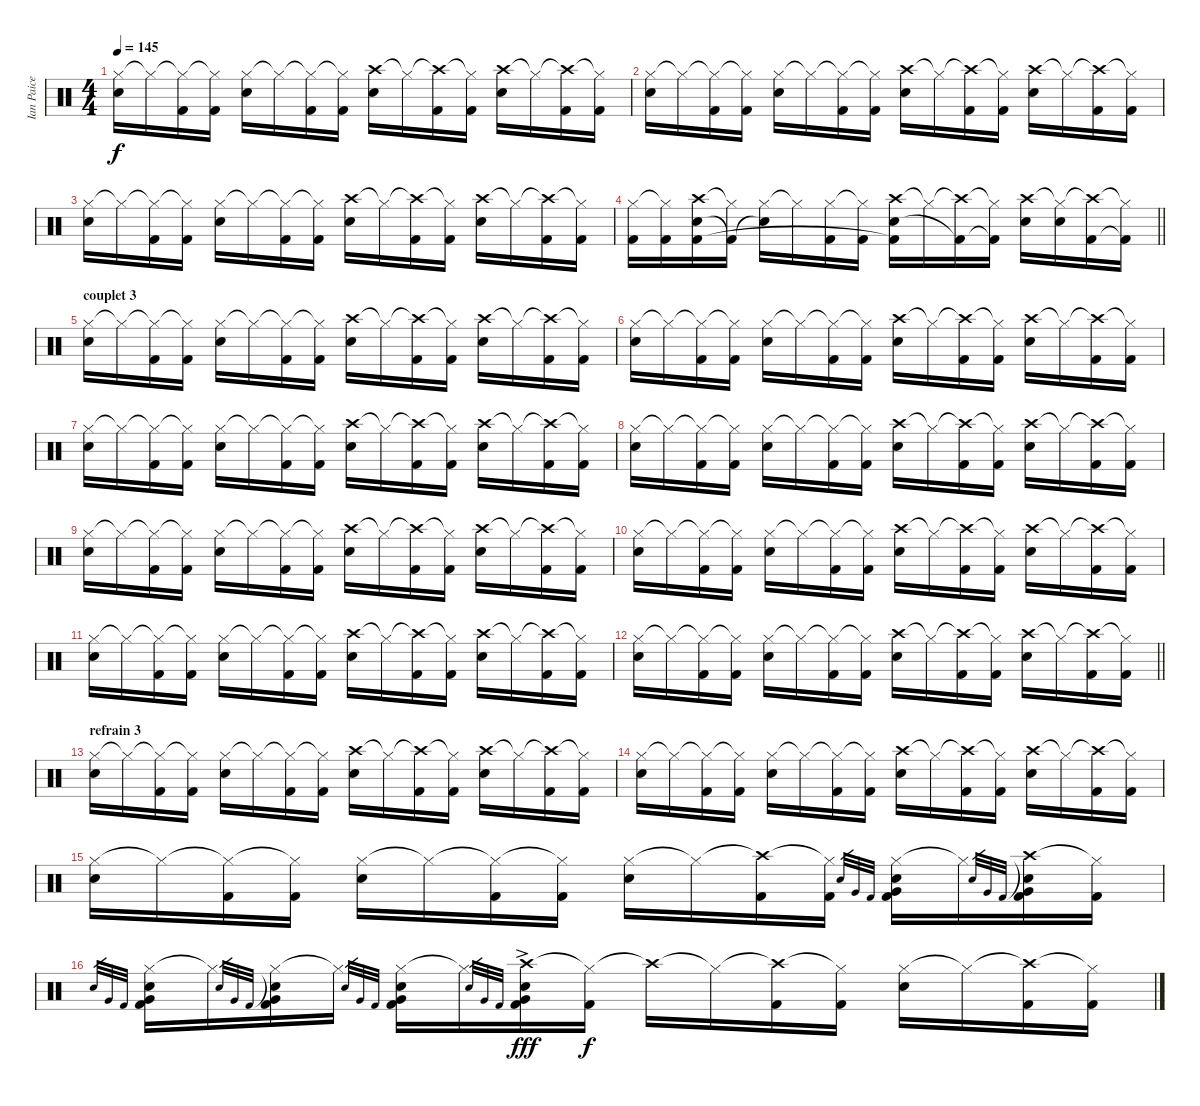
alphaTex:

\track ("Ian Paice" "Ian Paice") {instrument percussion}
\staff {score}
\articulation defaults
\ts (4 4)
\tempo 145
\clef neutral
\ks c
("Hi-Hat (closed)" "Snare (hit) 2").16{dy f} "Hi-Hat (closed)"{t}.16 ("Hi-Hat (closed)"{t} "Kick (hit) 2").16 ("Hi-Hat (closed)"{t} "Kick (hit) 2").16 ("Hi-Hat (closed)" "Snare (hit) 2").16 "Hi-Hat (closed)"{t}.16 ("Hi-Hat (closed)"{t} "Kick (hit) 2").16 ("Hi-Hat (closed)"{t} "Kick (hit) 2").16 ("Crash high (hit)" "Snare (hit) 2").16 "Hi-Hat (closed)"{t}.16 ("Crash high (hit)"{t} "Kick (hit) 2").16 ("Hi-Hat (closed)"{t} "Kick (hit) 2").16 ("Crash high (hit)" "Snare (hit) 2").16 "Hi-Hat (closed)"{t}.16 ("Crash high (hit)"{t} "Kick (hit) 2").16 ("Hi-Hat (closed)"{t} "Kick (hit) 2").16 |
("Hi-Hat (closed)" "Snare (hit) 2").16 "Hi-Hat (closed)"{t}.16 ("Hi-Hat (closed)"{t} "Kick (hit) 2").16 ("Hi-Hat (closed)"{t} "Kick (hit) 2").16 ("Hi-Hat (closed)" "Snare (hit) 2").16 "Hi-Hat (closed)"{t}.16 ("Hi-Hat (closed)"{t} "Kick (hit) 2").16 ("Hi-Hat (closed)"{t} "Kick (hit) 2").16 ("Crash high (hit)" "Snare (hit) 2").16 "Hi-Hat (closed)"{t}.16 ("Crash high (hit)"{t} "Kick (hit) 2").16 ("Hi-Hat (closed)"{t} "Kick (hit) 2").16 ("Crash high (hit)" "Snare (hit) 2").16 "Hi-Hat (closed)"{t}.16 ("Crash high (hit)"{t} "Kick (hit) 2").16 ("Hi-Hat (closed)"{t} "Kick (hit) 2").16 |
("Hi-Hat (closed)" "Snare (hit) 2").16 "Hi-Hat (closed)"{t}.16 ("Hi-Hat (closed)"{t} "Kick (hit) 2").16 ("Hi-Hat (closed)"{t} "Kick (hit) 2").16 ("Hi-Hat (closed)" "Snare (hit) 2").16 "Hi-Hat (closed)"{t}.16 ("Hi-Hat (closed)"{t} "Kick (hit) 2").16 ("Hi-Hat (closed)"{t} "Kick (hit) 2").16 ("Crash high (hit)" "Snare (hit) 2").16 "Hi-Hat (closed)"{t}.16 ("Crash high (hit)"{t} "Kick (hit) 2").16 ("Hi-Hat (closed)"{t} "Kick (hit) 2").16 ("Crash high (hit)" "Snare (hit) 2").16 "Hi-Hat (closed)"{t}.16 ("Crash high (hit)"{t} "Kick (hit) 2").16 ("Hi-Hat (closed)"{t} "Kick (hit) 2").16 |
\barLineRight lightlight
("Hi-Hat (closed)" "Kick (hit) 2").16 ("Hi-Hat (closed)"{t} "Kick (hit) 2").16 ("Crash high (hit)" "Snare (hit) 2" "Kick (hit) 2").16 ("Hi-Hat (closed)"{t} "Kick (hit) 2"{t}).16 ("Hi-Hat (closed)" "Snare (hit) 2"{t}).16 "Hi-Hat (closed)"{t}.16 ("Hi-Hat (closed)" "Kick (hit) 2").16 ("Hi-Hat (closed)"{t} "Kick (hit) 2").16 ("Crash high (hit)" "Snare (hit) 2" "Kick (hit) 2"{t}).16 "Hi-Hat (closed)"{t}.16 ("Crash high (hit)"{t} "Kick (hit) 2"{t}).16 ("Hi-Hat (closed)"{t} "Kick (hit) 2"{t}).16 ("Crash high (hit)" "Snare (hit) 2").16 ("Hi-Hat (closed)"{t} "Snare (hit) 2").16 ("Crash high (hit)"{t} "Kick (hit) 2").16 ("Hi-Hat (closed)"{t} "Kick (hit) 2"{t}).16 |
\section ("" "couplet 3")
("Hi-Hat (closed)" "Snare (hit) 2").16 "Hi-Hat (closed)"{t}.16 ("Hi-Hat (closed)"{t} "Kick (hit) 2").16 ("Hi-Hat (closed)"{t} "Kick (hit) 2").16 ("Hi-Hat (closed)" "Snare (hit) 2").16 "Hi-Hat (closed)"{t}.16 ("Hi-Hat (closed)"{t} "Kick (hit) 2").16 ("Hi-Hat (closed)"{t} "Kick (hit) 2").16 ("Crash high (hit)" "Snare (hit) 2").16 "Hi-Hat (closed)"{t}.16 ("Crash high (hit)"{t} "Kick (hit) 2").16 ("Hi-Hat (closed)"{t} "Kick (hit) 2").16 ("Crash high (hit)" "Snare (hit) 2").16 "Hi-Hat (closed)"{t}.16 ("Crash high (hit)"{t} "Kick (hit) 2").16 ("Hi-Hat (closed)"{t} "Kick (hit) 2").16 |
("Hi-Hat (closed)" "Snare (hit) 2").16 "Hi-Hat (closed)"{t}.16 ("Hi-Hat (closed)"{t} "Kick (hit) 2").16 ("Hi-Hat (closed)"{t} "Kick (hit) 2").16 ("Hi-Hat (closed)" "Snare (hit) 2").16 "Hi-Hat (closed)"{t}.16 ("Hi-Hat (closed)"{t} "Kick (hit) 2").16 ("Hi-Hat (closed)"{t} "Kick (hit) 2").16 ("Crash high (hit)" "Snare (hit) 2").16 "Hi-Hat (closed)"{t}.16 ("Crash high (hit)"{t} "Kick (hit) 2").16 ("Hi-Hat (closed)"{t} "Kick (hit) 2").16 ("Crash high (hit)" "Snare (hit) 2").16 "Hi-Hat (closed)"{t}.16 ("Crash high (hit)"{t} "Kick (hit) 2").16 ("Hi-Hat (closed)"{t} "Kick (hit) 2").16 |
("Hi-Hat (closed)" "Snare (hit) 2").16 "Hi-Hat (closed)"{t}.16 ("Hi-Hat (closed)"{t} "Kick (hit) 2").16 ("Hi-Hat (closed)"{t} "Kick (hit) 2").16 ("Hi-Hat (closed)" "Snare (hit) 2").16 "Hi-Hat (closed)"{t}.16 ("Hi-Hat (closed)"{t} "Kick (hit) 2").16 ("Hi-Hat (closed)"{t} "Kick (hit) 2").16 ("Crash high (hit)" "Snare (hit) 2").16 "Hi-Hat (closed)"{t}.16 ("Crash high (hit)"{t} "Kick (hit) 2").16 ("Hi-Hat (closed)"{t} "Kick (hit) 2").16 ("Crash high (hit)" "Snare (hit) 2").16 "Hi-Hat (closed)"{t}.16 ("Crash high (hit)"{t} "Kick (hit) 2").16 ("Hi-Hat (closed)"{t} "Kick (hit) 2").16 |
("Hi-Hat (closed)" "Snare (hit) 2").16 "Hi-Hat (closed)"{t}.16 ("Hi-Hat (closed)"{t} "Kick (hit) 2").16 ("Hi-Hat (closed)"{t} "Kick (hit) 2").16 ("Hi-Hat (closed)" "Snare (hit) 2").16 "Hi-Hat (closed)"{t}.16 ("Hi-Hat (closed)"{t} "Kick (hit) 2").16 ("Hi-Hat (closed)"{t} "Kick (hit) 2").16 ("Crash high (hit)" "Snare (hit) 2").16 "Hi-Hat (closed)"{t}.16 ("Crash high (hit)"{t} "Kick (hit) 2").16 ("Hi-Hat (closed)"{t} "Kick (hit) 2").16 ("Crash high (hit)" "Snare (hit) 2").16 "Hi-Hat (closed)"{t}.16 ("Crash high (hit)"{t} "Kick (hit) 2").16 ("Hi-Hat (closed)"{t} "Kick (hit) 2").16 |
("Hi-Hat (closed)" "Snare (hit) 2").16 "Hi-Hat (closed)"{t}.16 ("Hi-Hat (closed)"{t} "Kick (hit) 2").16 ("Hi-Hat (closed)"{t} "Kick (hit) 2").16 ("Hi-Hat (closed)" "Snare (hit) 2").16 "Hi-Hat (closed)"{t}.16 ("Hi-Hat (closed)"{t} "Kick (hit) 2").16 ("Hi-Hat (closed)"{t} "Kick (hit) 2").16 ("Crash high (hit)" "Snare (hit) 2").16 "Hi-Hat (closed)"{t}.16 ("Crash high (hit)"{t} "Kick (hit) 2").16 ("Hi-Hat (closed)"{t} "Kick (hit) 2").16 ("Crash high (hit)" "Snare (hit) 2").16 "Hi-Hat (closed)"{t}.16 ("Crash high (hit)"{t} "Kick (hit) 2").16 ("Hi-Hat (closed)"{t} "Kick (hit) 2").16 |
("Hi-Hat (closed)" "Snare (hit) 2").16 "Hi-Hat (closed)"{t}.16 ("Hi-Hat (closed)"{t} "Kick (hit) 2").16 ("Hi-Hat (closed)"{t} "Kick (hit) 2").16 ("Hi-Hat (closed)" "Snare (hit) 2").16 "Hi-Hat (closed)"{t}.16 ("Hi-Hat (closed)"{t} "Kick (hit) 2").16 ("Hi-Hat (closed)"{t} "Kick (hit) 2").16 ("Crash high (hit)" "Snare (hit) 2").16 "Hi-Hat (closed)"{t}.16 ("Crash high (hit)"{t} "Kick (hit) 2").16 ("Hi-Hat (closed)"{t} "Kick (hit) 2").16 ("Crash high (hit)" "Snare (hit) 2").16 "Hi-Hat (closed)"{t}.16 ("Crash high (hit)"{t} "Kick (hit) 2").16 ("Hi-Hat (closed)"{t} "Kick (hit) 2").16 |
("Hi-Hat (closed)" "Snare (hit) 2").16 "Hi-Hat (closed)"{t}.16 ("Hi-Hat (closed)"{t} "Kick (hit) 2").16 ("Hi-Hat (closed)"{t} "Kick (hit) 2").16 ("Hi-Hat (closed)" "Snare (hit) 2").16 "Hi-Hat (closed)"{t}.16 ("Hi-Hat (closed)"{t} "Kick (hit) 2").16 ("Hi-Hat (closed)"{t} "Kick (hit) 2").16 ("Crash high (hit)" "Snare (hit) 2").16 "Hi-Hat (closed)"{t}.16 ("Crash high (hit)"{t} "Kick (hit) 2").16 ("Hi-Hat (closed)"{t} "Kick (hit) 2").16 ("Crash high (hit)" "Snare (hit) 2").16 "Hi-Hat (closed)"{t}.16 ("Crash high (hit)"{t} "Kick (hit) 2").16 ("Hi-Hat (closed)"{t} "Kick (hit) 2").16 |
\barLineRight lightlight
("Hi-Hat (closed)" "Snare (hit) 2").16 "Hi-Hat (closed)"{t}.16 ("Hi-Hat (closed)"{t} "Kick (hit) 2").16 ("Hi-Hat (closed)"{t} "Kick (hit) 2").16 ("Hi-Hat (closed)" "Snare (hit) 2").16 "Hi-Hat (closed)"{t}.16 ("Hi-Hat (closed)"{t} "Kick (hit) 2").16 ("Hi-Hat (closed)"{t} "Kick (hit) 2").16 ("Crash high (hit)" "Snare (hit) 2").16 "Hi-Hat (closed)"{t}.16 ("Crash high (hit)"{t} "Kick (hit) 2").16 ("Hi-Hat (closed)"{t} "Kick (hit) 2").16 ("Crash high (hit)" "Snare (hit) 2").16 "Hi-Hat (closed)"{t}.16 ("Crash high (hit)"{t} "Kick (hit) 2").16 ("Hi-Hat (closed)"{t} "Kick (hit) 2").16 |
\section ("" "refrain 3")
("Hi-Hat (closed)" "Snare (hit) 2").16 "Hi-Hat (closed)"{t}.16 ("Hi-Hat (closed)"{t} "Kick (hit) 2").16 ("Hi-Hat (closed)"{t} "Kick (hit) 2").16 ("Hi-Hat (closed)" "Snare (hit) 2").16 "Hi-Hat (closed)"{t}.16 ("Hi-Hat (closed)"{t} "Kick (hit) 2").16 ("Hi-Hat (closed)"{t} "Kick (hit) 2").16 ("Crash high (hit)" "Snare (hit) 2").16 "Hi-Hat (closed)"{t}.16 ("Crash high (hit)"{t} "Kick (hit) 2").16 ("Hi-Hat (closed)"{t} "Kick (hit) 2").16 ("Crash high (hit)" "Snare (hit) 2").16 "Hi-Hat (closed)"{t}.16 ("Crash high (hit)"{t} "Kick (hit) 2").16 ("Hi-Hat (closed)"{t} "Kick (hit) 2").16 |
("Hi-Hat (closed)" "Snare (hit) 2").16 "Hi-Hat (closed)"{t}.16 ("Hi-Hat (closed)"{t} "Kick (hit) 2").16 ("Hi-Hat (closed)"{t} "Kick (hit) 2").16 ("Hi-Hat (closed)" "Snare (hit) 2").16 "Hi-Hat (closed)"{t}.16 ("Hi-Hat (closed)"{t} "Kick (hit) 2").16 ("Hi-Hat (closed)"{t} "Kick (hit) 2").16 ("Crash high (hit)" "Snare (hit) 2").16 "Hi-Hat (closed)"{t}.16 ("Crash high (hit)"{t} "Kick (hit) 2").16 ("Hi-Hat (closed)"{t} "Kick (hit) 2").16 ("Crash high (hit)" "Snare (hit) 2").16 "Hi-Hat (closed)"{t}.16 ("Crash high (hit)"{t} "Kick (hit) 2").16 ("Hi-Hat (closed)"{t} "Kick (hit) 2").16 |
("Hi-Hat (closed)" "Snare (hit) 2").16 "Hi-Hat (closed)"{t}.16 ("Hi-Hat (closed)"{t} "Kick (hit) 2").16 ("Hi-Hat (closed)"{t} "Kick (hit) 2").16 ("Hi-Hat (closed)" "Snare (hit) 2").16 "Hi-Hat (closed)"{t}.16 ("Hi-Hat (closed)"{t} "Kick (hit) 2").16 ("Hi-Hat (closed)"{t} "Kick (hit) 2").16 ("Hi-Hat (closed)" "Snare (hit) 2").16 "Hi-Hat (closed)"{t}.16 ("Crash high (hit)"{t} "Kick (hit) 2").16 ("Hi-Hat (closed)"{t} "Kick (hit) 2").16 "Snare (hit) 2".32{gr} "Very Low Tom (hit)".32{gr} "Kick (hit) 2".32{gr} ("Hi-Hat (closed)" "Snare (hit) 2" "Very Low Tom (hit)" "Kick (hit) 2").16 "Hi-Hat (closed)"{t}.16 "Snare (hit) 2".32{gr} "Very Low Tom (hit)".32{gr} "Kick (hit) 2".32{gr} ("Crash high (hit)"{t} "Snare (hit) 2" "Very Low Tom (hit)" "Kick (hit) 2").16 ("Hi-Hat (closed)"{t} "Kick (hit) 2").16 |
"Snare (hit) 2".32{gr} "Very Low Tom (hit)".32{gr} "Kick (hit) 2".32{gr} ("Hi-Hat (closed)" "Snare (hit) 2" "Very Low Tom (hit)" "Kick (hit) 2").16 "Hi-Hat (closed)"{t}.16 "Snare (hit) 2".32{gr} "Very Low Tom (hit)".32{gr} "Kick (hit) 2".32{gr} ("Hi-Hat (closed)"{t} "Snare (hit) 2" "Very Low Tom (hit)" "Kick (hit) 2").16 "Hi-Hat (closed)"{t}.16 "Snare (hit) 2".32{gr} "Very Low Tom (hit)".32{gr} "Kick (hit) 2".32{gr} ("Hi-Hat (closed)" "Snare (hit) 2" "Very Low Tom (hit)" "Kick (hit) 2").16 "Hi-Hat (closed)"{t}.16 "Snare (hit) 2".32{gr} "Very Low Tom (hit)".32{gr} "Kick (hit) 2".32{gr} ("Crash high (hit)"{ac} "Snare (hit) 2" "Very Low Tom (hit)" "Kick (hit) 2").16{dy fff} ("Hi-Hat (closed)"{t} "Kick (hit) 2").16{dy f} "Crash high (hit)"{t}.16 "Hi-Hat (closed)"{t}.16 ("Crash high (hit)"{t} "Kick (hit) 2").16 ("Hi-Hat (closed)"{t} "Kick (hit) 2").16 ("Hi-Hat (closed)" "Snare (hit) 2").16 "Hi-Hat (closed)"{t}.16 ("Crash high (hit)"{t} "Kick (hit) 2").16 ("Hi-Hat (closed)"{t} "Kick (hit) 2").16
